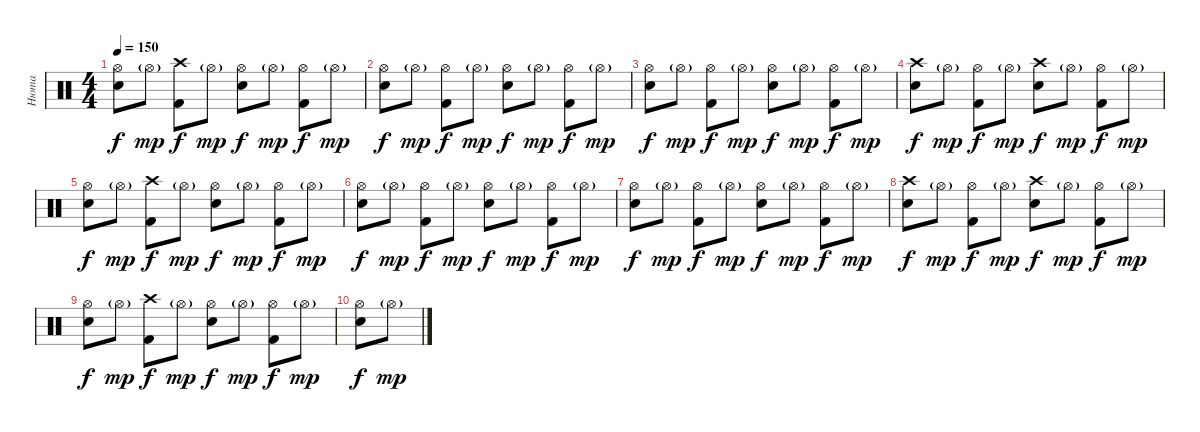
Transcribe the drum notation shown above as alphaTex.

\track ("Нюта" "Нюта") {instrument percussion}
\staff {score}
\articulation defaults
\ts (4 4)
\tempo 150
\clef neutral
\ks c
("Hi-Hat (open)" "Electric Snare (hit)").8{dy f} "Hi-Hat (open)"{g}.8{dy mp} ("Crash high (hit)" "Kick (hit) 2").8{dy f} "Hi-Hat (open)"{g}.8{dy mp} ("Hi-Hat (open)" "Electric Snare (hit)").8{dy f} "Hi-Hat (open)"{g}.8{dy mp} ("Hi-Hat (open)" "Kick (hit) 2").8{dy f} "Hi-Hat (open)"{g}.8{dy mp} |
("Hi-Hat (open)" "Electric Snare (hit)").8{dy f} "Hi-Hat (open)"{g}.8{dy mp} ("Hi-Hat (open)" "Kick (hit) 2").8{dy f} "Hi-Hat (open)"{g}.8{dy mp} ("Hi-Hat (open)" "Electric Snare (hit)").8{dy f} "Hi-Hat (open)"{g}.8{dy mp} ("Hi-Hat (open)" "Kick (hit) 2").8{dy f} "Hi-Hat (open)"{g}.8{dy mp} |
("Hi-Hat (open)" "Electric Snare (hit)").8{dy f} "Hi-Hat (open)"{g}.8{dy mp} ("Hi-Hat (open)" "Kick (hit) 2").8{dy f} "Hi-Hat (open)"{g}.8{dy mp} ("Hi-Hat (open)" "Electric Snare (hit)").8{dy f} "Hi-Hat (open)"{g}.8{dy mp} ("Hi-Hat (open)" "Kick (hit) 2").8{dy f} "Hi-Hat (open)"{g}.8{dy mp} |
("Crash high (hit)" "Electric Snare (hit)").8{dy f} "Hi-Hat (open)"{g}.8{dy mp} ("Hi-Hat (open)" "Kick (hit) 2").8{dy f} "Hi-Hat (open)"{g}.8{dy mp} ("Crash high (hit)" "Electric Snare (hit)").8{dy f} "Hi-Hat (open)"{g}.8{dy mp} ("Hi-Hat (open)" "Kick (hit) 2").8{dy f} "Hi-Hat (open)"{g}.8{dy mp} |
("Hi-Hat (open)" "Electric Snare (hit)").8{dy f} "Hi-Hat (open)"{g}.8{dy mp} ("Crash high (hit)" "Kick (hit) 2").8{dy f} "Hi-Hat (open)"{g}.8{dy mp} ("Hi-Hat (open)" "Electric Snare (hit)").8{dy f} "Hi-Hat (open)"{g}.8{dy mp} ("Hi-Hat (open)" "Kick (hit) 2").8{dy f} "Hi-Hat (open)"{g}.8{dy mp} |
("Hi-Hat (open)" "Electric Snare (hit)").8{dy f} "Hi-Hat (open)"{g}.8{dy mp} ("Hi-Hat (open)" "Kick (hit) 2").8{dy f} "Hi-Hat (open)"{g}.8{dy mp} ("Hi-Hat (open)" "Electric Snare (hit)").8{dy f} "Hi-Hat (open)"{g}.8{dy mp} ("Hi-Hat (open)" "Kick (hit) 2").8{dy f} "Hi-Hat (open)"{g}.8{dy mp} |
("Hi-Hat (open)" "Electric Snare (hit)").8{dy f} "Hi-Hat (open)"{g}.8{dy mp} ("Hi-Hat (open)" "Kick (hit) 2").8{dy f} "Hi-Hat (open)"{g}.8{dy mp} ("Hi-Hat (open)" "Electric Snare (hit)").8{dy f} "Hi-Hat (open)"{g}.8{dy mp} ("Hi-Hat (open)" "Kick (hit) 2").8{dy f} "Hi-Hat (open)"{g}.8{dy mp} |
("Crash high (hit)" "Electric Snare (hit)").8{dy f} "Hi-Hat (open)"{g}.8{dy mp} ("Hi-Hat (open)" "Kick (hit) 2").8{dy f} "Hi-Hat (open)"{g}.8{dy mp} ("Crash high (hit)" "Electric Snare (hit)").8{dy f} "Hi-Hat (open)"{g}.8{dy mp} ("Hi-Hat (open)" "Kick (hit) 2").8{dy f} "Hi-Hat (open)"{g}.8{dy mp} |
("Hi-Hat (open)" "Electric Snare (hit)").8{dy f} "Hi-Hat (open)"{g}.8{dy mp} ("Crash high (hit)" "Kick (hit) 2").8{dy f} "Hi-Hat (open)"{g}.8{dy mp} ("Hi-Hat (open)" "Electric Snare (hit)").8{dy f} "Hi-Hat (open)"{g}.8{dy mp} ("Hi-Hat (open)" "Kick (hit) 2").8{dy f} "Hi-Hat (open)"{g}.8{dy mp} |
("Hi-Hat (open)" "Electric Snare (hit)").8{dy f} "Hi-Hat (open)"{g}.8{dy mp}
